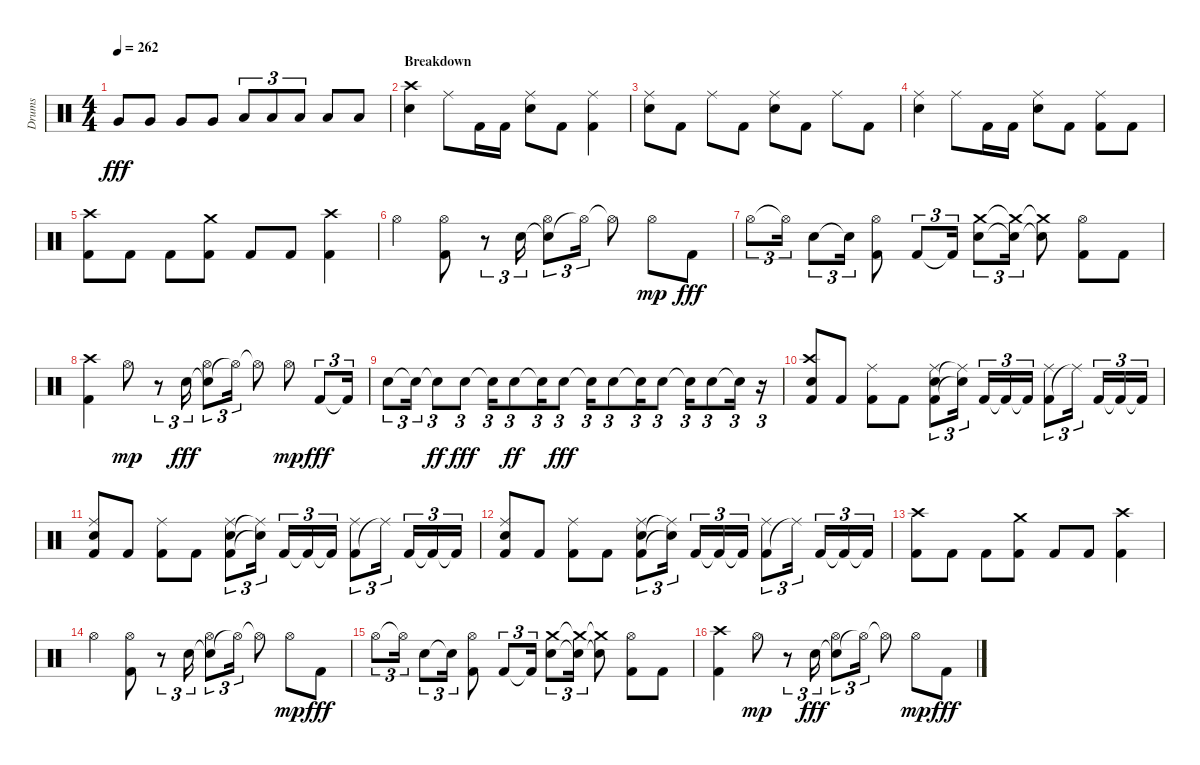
\track ("Drums" "Drums") {instrument percussion}
\staff {score}
\articulation defaults
\ts (4 4)
\tempo 262
\clef neutral
\ks aminor "Very Low Tom (hit)".8{dy fff} "Very Low Tom (hit)".8 "Very Low Tom (hit)".8 "Very Low Tom (hit)".8 "Low Floor Tom (hit)".8{tu (3 2)} "Low Floor Tom (hit)".8{tu (3 2)} "Low Floor Tom (hit)".8{tu (3 2)} "Low Floor Tom (hit)".8 "Low Floor Tom (hit)".8
|
\section ("" "Breakdown")
("Snare (hit) 2" "Crash high (hit)").4 "Ride (middle)".8 "Kick (hit) 2".16 "Kick (hit) 2".16 ("Snare (hit) 2" "Ride (middle)").8 "Kick (hit) 2".8 ("Kick (hit) 2" "Ride (middle)").4 |
("Snare (hit) 2" "Ride (middle)").8 "Kick (hit) 2".8 "Ride (middle)".8 "Kick (hit) 2".8 ("Snare (hit) 2" "Ride (middle)").8 "Kick (hit) 2".8 "Ride (middle)".8 "Kick (hit) 2".8 |
("Snare (hit) 2" "Ride (middle)").4 "Ride (middle)".8 "Kick (hit) 2".16 "Kick (hit) 2".16 ("Snare (hit) 2" "Ride (middle)").8 "Kick (hit) 2".8 ("Kick (hit) 2" "Ride (middle)").8 "Kick (hit) 2".8 |
("Kick (hit) 2" "Crash high (hit)").8 "Kick (hit) 2".8 "Kick (hit) 2".8 ("Kick (hit) 2" "Crash medium (hit)").8 "Kick (hit) 2".8 "Kick (hit) 2".8 ("Kick (hit) 2" "Crash high (hit)").4 |
"Hi-Hat (open)".4 ("Kick (hit) 2" "Hi-Hat (open)").8 r.8{tu (3 2)} "Snare (hit) 2".16{tu (3 2)} ("Snare (hit) 2"{t} "Hi-Hat (open)").8{tu (3 2)} "Hi-Hat (open)"{t}.16{tu (3 2)} "Hi-Hat (open)"{t}.8 "Hi-Hat (open)".8{dy mp} "Kick (hit) 2".8{dy fff} |
"Hi-Hat (open)".8{tu (3 2)} "Hi-Hat (open)"{t}.16{tu (3 2)} "Snare (hit) 2".8{tu (3 2)} "Snare (hit) 2"{t}.16{tu (3 2)} ("Kick (hit) 2" "Hi-Hat (open)").8 "Kick (hit) 2".8{tu (3 2)} "Kick (hit) 2"{t}.16{tu (3 2)} ("Snare (hit) 2" "Crash medium (hit)").8{tu (3 2)} ("Snare (hit) 2"{t} "Crash medium (hit)"{t}).16{tu (3 2)} ("Snare (hit) 2"{t} "Crash medium (hit)"{t}).8 ("Kick (hit) 2" "Hi-Hat (open)").8 "Kick (hit) 2".8 |
("Kick (hit) 2" "Crash high (hit)").4 "Hi-Hat (open)".8{dy mp} r.8{tu (3 2)} "Snare (hit) 2".16{tu (3 2) dy fff} ("Snare (hit) 2"{t} "Hi-Hat (open)").8{tu (3 2)} "Hi-Hat (open)"{t}.16{tu (3 2)} "Hi-Hat (open)"{t}.8 "Hi-Hat (open)".8{dy mp} "Kick (hit) 2".8{tu (3 2) dy fff} "Kick (hit) 2"{t}.16{tu (3 2)} |
"Snare (hit) 2".8{tu (3 2)} "Snare (hit) 2"{t}.16{tu (3 2)} "Snare (hit) 2"{t}.8{tu (3 2) dy ff} "Snare (hit) 2".8{tu (3 2) dy fff} "Snare (hit) 2"{t}.16{tu (3 2)} "Snare (hit) 2".8{tu (3 2) dy ff} "Snare (hit) 2"{t}.16{tu (3 2)} "Snare (hit) 2".8{tu (3 2) dy fff} "Snare (hit) 2"{t}.16{tu (3 2)} "Snare (hit) 2".8{tu (3 2)} "Snare (hit) 2"{t}.16{tu (3 2)} "Snare (hit) 2".8{tu (3 2)} "Snare (hit) 2"{t}.16{tu (3 2)} "Snare (hit) 2".8{tu (3 2)} "Snare (hit) 2"{t}.16{tu (3 2)} r.16{tu (3 2)} |
("Kick (hit) 2" "Snare (hit) 2" "Crash high (hit)").8 "Kick (hit) 2".8 ("Kick (hit) 2" "Ride (middle)").8 "Kick (hit) 2".8 ("Kick (hit) 2" "Snare (hit) 2" "Ride (middle)").8{tu (3 2)} ("Snare (hit) 2"{t} "Ride (middle)"{t}).16{tu (3 2)} "Kick (hit) 2".16{tu (3 2)} "Kick (hit) 2"{t}.16{tu (3 2)} "Kick (hit) 2"{t}.16{tu (3 2)} ("Kick (hit) 2" "Ride (middle)").8{tu (3 2)} "Ride (middle)"{t}.16{tu (3 2)} "Kick (hit) 2".16{tu (3 2)} "Kick (hit) 2"{t}.16{tu (3 2)} "Kick (hit) 2"{t}.16{tu (3 2)} |
("Kick (hit) 2" "Snare (hit) 2" "Ride (middle)").8 "Kick (hit) 2".8 ("Kick (hit) 2" "Ride (middle)").8 "Kick (hit) 2".8 ("Kick (hit) 2" "Snare (hit) 2" "Ride (middle)").8{tu (3 2)} ("Snare (hit) 2"{t} "Ride (middle)"{t}).16{tu (3 2)} "Kick (hit) 2".16{tu (3 2)} "Kick (hit) 2"{t}.16{tu (3 2)} "Kick (hit) 2"{t}.16{tu (3 2)} ("Kick (hit) 2" "Ride (middle)").8{tu (3 2)} "Ride (middle)"{t}.16{tu (3 2)} "Kick (hit) 2".16{tu (3 2)} "Kick (hit) 2"{t}.16{tu (3 2)} "Kick (hit) 2"{t}.16{tu (3 2)} |
("Kick (hit) 2" "Snare (hit) 2" "Ride (middle)").8 "Kick (hit) 2".8 ("Kick (hit) 2" "Ride (middle)").8 "Kick (hit) 2".8 ("Kick (hit) 2" "Snare (hit) 2" "Ride (middle)").8{tu (3 2)} ("Snare (hit) 2"{t} "Ride (middle)"{t}).16{tu (3 2)} "Kick (hit) 2".16{tu (3 2)} "Kick (hit) 2"{t}.16{tu (3 2)} "Kick (hit) 2"{t}.16{tu (3 2)} ("Kick (hit) 2" "Ride (middle)").8{tu (3 2)} "Ride (middle)"{t}.16{tu (3 2)} "Kick (hit) 2".16{tu (3 2)} "Kick (hit) 2"{t}.16{tu (3 2)} "Kick (hit) 2"{t}.16{tu (3 2)} |
("Kick (hit) 2" "Crash high (hit)").8 "Kick (hit) 2".8 "Kick (hit) 2".8 ("Kick (hit) 2" "Crash medium (hit)").8 "Kick (hit) 2".8 "Kick (hit) 2".8 ("Kick (hit) 2" "Crash high (hit)").4 |
"Hi-Hat (open)".4 ("Kick (hit) 2" "Hi-Hat (open)").8 r.8{tu (3 2)} "Snare (hit) 2".16{tu (3 2)} ("Snare (hit) 2"{t} "Hi-Hat (open)").8{tu (3 2)} "Hi-Hat (open)"{t}.16{tu (3 2)} "Hi-Hat (open)"{t}.8 "Hi-Hat (open)".8{dy mp} "Kick (hit) 2".8{dy fff} |
"Hi-Hat (open)".8{tu (3 2)} "Hi-Hat (open)"{t}.16{tu (3 2)} "Snare (hit) 2".8{tu (3 2)} "Snare (hit) 2"{t}.16{tu (3 2)} ("Kick (hit) 2" "Hi-Hat (open)").8 "Kick (hit) 2".8{tu (3 2)} "Kick (hit) 2"{t}.16{tu (3 2)} ("Snare (hit) 2" "Crash medium (hit)").8{tu (3 2)} ("Snare (hit) 2"{t} "Crash medium (hit)"{t}).16{tu (3 2)} ("Snare (hit) 2"{t} "Crash medium (hit)"{t}).8 ("Kick (hit) 2" "Hi-Hat (open)").8 "Kick (hit) 2".8 |
("Kick (hit) 2" "Crash high (hit)").4 "Hi-Hat (open)".8{dy mp} r.8{tu (3 2)} "Snare (hit) 2".16{tu (3 2) dy fff} ("Snare (hit) 2"{t} "Hi-Hat (open)").8{tu (3 2)} "Hi-Hat (open)"{t}.16{tu (3 2)} "Hi-Hat (open)"{t}.8 "Hi-Hat (open)".8{dy mp} "Kick (hit) 2".8{dy fff}
